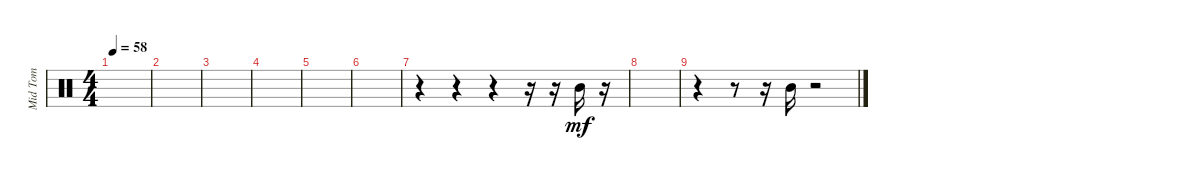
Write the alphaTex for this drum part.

\track ("Mid Tom" "Mid Tom") {instrument percussion}
\staff {score}
\articulation defaults
\ts (4 4)
\tempo 58
\clef neutral
\ks c
|
|
|
|
|
|
r.4 r.4 r.4 r.16 r.16 "Mid Tom (hit)".16{dy mf} r.16 |
|
r.4 r.8 r.16 "Mid Tom (hit)".16 r.2
